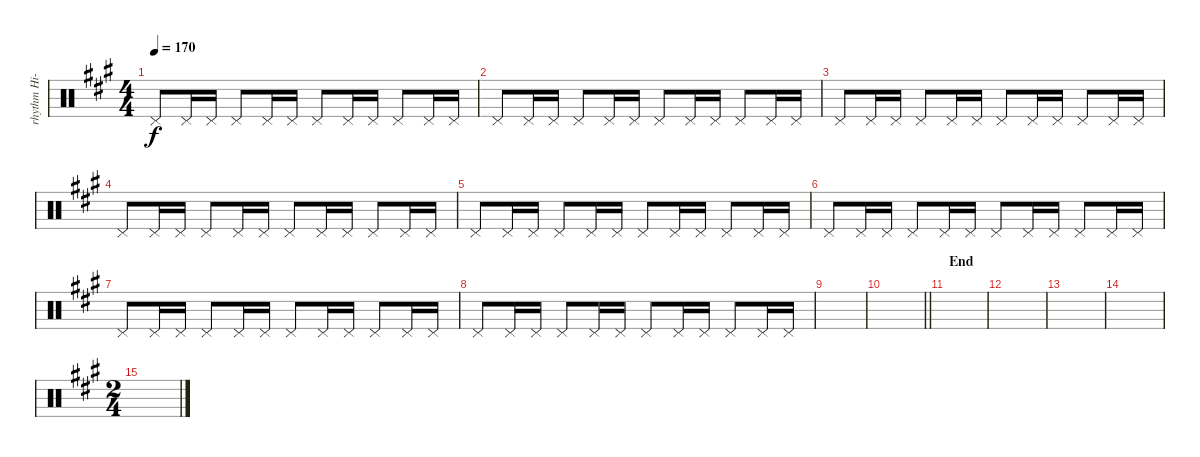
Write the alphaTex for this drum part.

\track ("rhythm Hi-hat" "rhythm Hi-") {instrument percussion}
\staff {score}
\articulation defaults
\ts (4 4)
\tempo 170
\clef neutral
\ks a "Pedal Hi-Hat (hit)".8{dy f} "Pedal Hi-Hat (hit)".16 "Pedal Hi-Hat (hit)".16 "Pedal Hi-Hat (hit)".8 "Pedal Hi-Hat (hit)".16 "Pedal Hi-Hat (hit)".16 "Pedal Hi-Hat (hit)".8 "Pedal Hi-Hat (hit)".16 "Pedal Hi-Hat (hit)".16 "Pedal Hi-Hat (hit)".8 "Pedal Hi-Hat (hit)".16 "Pedal Hi-Hat (hit)".16
|
"Pedal Hi-Hat (hit)".8 "Pedal Hi-Hat (hit)".16 "Pedal Hi-Hat (hit)".16 "Pedal Hi-Hat (hit)".8 "Pedal Hi-Hat (hit)".16 "Pedal Hi-Hat (hit)".16 "Pedal Hi-Hat (hit)".8 "Pedal Hi-Hat (hit)".16 "Pedal Hi-Hat (hit)".16 "Pedal Hi-Hat (hit)".8 "Pedal Hi-Hat (hit)".16 "Pedal Hi-Hat (hit)".16 |
"Pedal Hi-Hat (hit)".8 "Pedal Hi-Hat (hit)".16 "Pedal Hi-Hat (hit)".16 "Pedal Hi-Hat (hit)".8 "Pedal Hi-Hat (hit)".16 "Pedal Hi-Hat (hit)".16 "Pedal Hi-Hat (hit)".8 "Pedal Hi-Hat (hit)".16 "Pedal Hi-Hat (hit)".16 "Pedal Hi-Hat (hit)".8 "Pedal Hi-Hat (hit)".16 "Pedal Hi-Hat (hit)".16 |
"Pedal Hi-Hat (hit)".8 "Pedal Hi-Hat (hit)".16 "Pedal Hi-Hat (hit)".16 "Pedal Hi-Hat (hit)".8 "Pedal Hi-Hat (hit)".16 "Pedal Hi-Hat (hit)".16 "Pedal Hi-Hat (hit)".8 "Pedal Hi-Hat (hit)".16 "Pedal Hi-Hat (hit)".16 "Pedal Hi-Hat (hit)".8 "Pedal Hi-Hat (hit)".16 "Pedal Hi-Hat (hit)".16 |
"Pedal Hi-Hat (hit)".8 "Pedal Hi-Hat (hit)".16 "Pedal Hi-Hat (hit)".16 "Pedal Hi-Hat (hit)".8 "Pedal Hi-Hat (hit)".16 "Pedal Hi-Hat (hit)".16 "Pedal Hi-Hat (hit)".8 "Pedal Hi-Hat (hit)".16 "Pedal Hi-Hat (hit)".16 "Pedal Hi-Hat (hit)".8 "Pedal Hi-Hat (hit)".16 "Pedal Hi-Hat (hit)".16 |
"Pedal Hi-Hat (hit)".8 "Pedal Hi-Hat (hit)".16 "Pedal Hi-Hat (hit)".16 "Pedal Hi-Hat (hit)".8 "Pedal Hi-Hat (hit)".16 "Pedal Hi-Hat (hit)".16 "Pedal Hi-Hat (hit)".8 "Pedal Hi-Hat (hit)".16 "Pedal Hi-Hat (hit)".16 "Pedal Hi-Hat (hit)".8 "Pedal Hi-Hat (hit)".16 "Pedal Hi-Hat (hit)".16 |
"Pedal Hi-Hat (hit)".8 "Pedal Hi-Hat (hit)".16 "Pedal Hi-Hat (hit)".16 "Pedal Hi-Hat (hit)".8 "Pedal Hi-Hat (hit)".16 "Pedal Hi-Hat (hit)".16 "Pedal Hi-Hat (hit)".8 "Pedal Hi-Hat (hit)".16 "Pedal Hi-Hat (hit)".16 "Pedal Hi-Hat (hit)".8 "Pedal Hi-Hat (hit)".16 "Pedal Hi-Hat (hit)".16 |
"Pedal Hi-Hat (hit)".8 "Pedal Hi-Hat (hit)".16 "Pedal Hi-Hat (hit)".16 "Pedal Hi-Hat (hit)".8 "Pedal Hi-Hat (hit)".16 "Pedal Hi-Hat (hit)".16 "Pedal Hi-Hat (hit)".8 "Pedal Hi-Hat (hit)".16 "Pedal Hi-Hat (hit)".16 "Pedal Hi-Hat (hit)".8 "Pedal Hi-Hat (hit)".16 "Pedal Hi-Hat (hit)".16 |
|
\barLineRight lightlight
|
\section ("" "End")
|
|
|
|
\ts (2 4)
